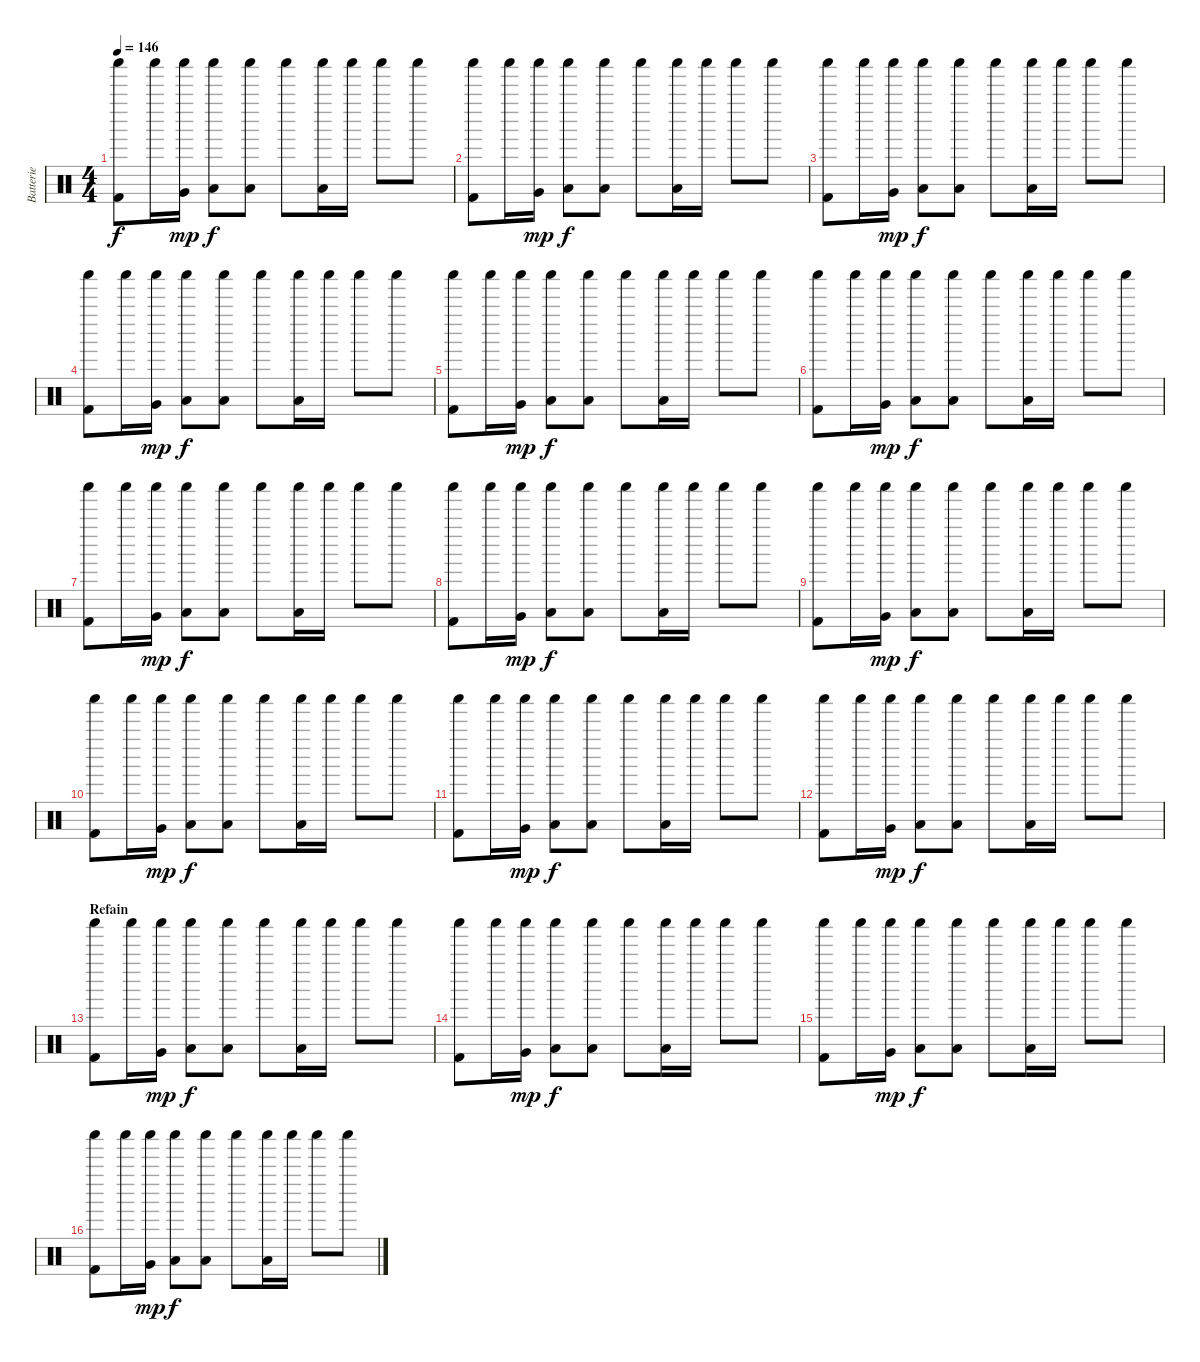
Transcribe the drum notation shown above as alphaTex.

\track ("Batterie" "Batterie") {instrument percussion}
\staff {score}
\articulation defaults
\ts (4 4)
\tempo 146
\clef neutral
\ks c
("Shaker (hit)" "Kick (hit) 2").8{dy f} "Shaker (hit)".16 ("Shaker (hit)" "Very Low Tom (hit)").16{dy mp} ("Shaker (hit)" "Low Tom (hit)").8{dy f} ("Shaker (hit)" "Low Tom (hit)").8 "Shaker (hit)".8 ("Shaker (hit)" "Low Tom (hit)").16 "Shaker (hit)".16 "Shaker (hit)".8 "Shaker (hit)".8 |
("Shaker (hit)" "Kick (hit) 2").8 "Shaker (hit)".16 ("Shaker (hit)" "Very Low Tom (hit)").16{dy mp} ("Shaker (hit)" "Low Tom (hit)").8{dy f} ("Shaker (hit)" "Low Tom (hit)").8 "Shaker (hit)".8 ("Shaker (hit)" "Low Tom (hit)").16 "Shaker (hit)".16 "Shaker (hit)".8 "Shaker (hit)".8 |
("Shaker (hit)" "Kick (hit) 2").8 "Shaker (hit)".16 ("Shaker (hit)" "Very Low Tom (hit)").16{dy mp} ("Shaker (hit)" "Low Tom (hit)").8{dy f} ("Shaker (hit)" "Low Tom (hit)").8 "Shaker (hit)".8 ("Shaker (hit)" "Low Tom (hit)").16 "Shaker (hit)".16 "Shaker (hit)".8 "Shaker (hit)".8 |
("Shaker (hit)" "Kick (hit) 2").8 "Shaker (hit)".16 ("Shaker (hit)" "Very Low Tom (hit)").16{dy mp} ("Shaker (hit)" "Low Tom (hit)").8{dy f} ("Shaker (hit)" "Low Tom (hit)").8 "Shaker (hit)".8 ("Shaker (hit)" "Low Tom (hit)").16 "Shaker (hit)".16 "Shaker (hit)".8 "Shaker (hit)".8 |
("Shaker (hit)" "Kick (hit) 2").8 "Shaker (hit)".16 ("Shaker (hit)" "Very Low Tom (hit)").16{dy mp} ("Shaker (hit)" "Low Tom (hit)").8{dy f} ("Shaker (hit)" "Low Tom (hit)").8 "Shaker (hit)".8 ("Shaker (hit)" "Low Tom (hit)").16 "Shaker (hit)".16 "Shaker (hit)".8 "Shaker (hit)".8 |
("Shaker (hit)" "Kick (hit) 2").8 "Shaker (hit)".16 ("Shaker (hit)" "Very Low Tom (hit)").16{dy mp} ("Shaker (hit)" "Low Tom (hit)").8{dy f} ("Shaker (hit)" "Low Tom (hit)").8 "Shaker (hit)".8 ("Shaker (hit)" "Low Tom (hit)").16 "Shaker (hit)".16 "Shaker (hit)".8 "Shaker (hit)".8 |
("Shaker (hit)" "Kick (hit) 2").8 "Shaker (hit)".16 ("Shaker (hit)" "Very Low Tom (hit)").16{dy mp} ("Shaker (hit)" "Low Tom (hit)").8{dy f} ("Shaker (hit)" "Low Tom (hit)").8 "Shaker (hit)".8 ("Shaker (hit)" "Low Tom (hit)").16 "Shaker (hit)".16 "Shaker (hit)".8 "Shaker (hit)".8 |
("Shaker (hit)" "Kick (hit) 2").8 "Shaker (hit)".16 ("Shaker (hit)" "Very Low Tom (hit)").16{dy mp} ("Shaker (hit)" "Low Tom (hit)").8{dy f} ("Shaker (hit)" "Low Tom (hit)").8 "Shaker (hit)".8 ("Shaker (hit)" "Low Tom (hit)").16 "Shaker (hit)".16 "Shaker (hit)".8 "Shaker (hit)".8 |
("Shaker (hit)" "Kick (hit) 2").8 "Shaker (hit)".16 ("Shaker (hit)" "Very Low Tom (hit)").16{dy mp} ("Shaker (hit)" "Low Tom (hit)").8{dy f} ("Shaker (hit)" "Low Tom (hit)").8 "Shaker (hit)".8 ("Shaker (hit)" "Low Tom (hit)").16 "Shaker (hit)".16 "Shaker (hit)".8 "Shaker (hit)".8 |
("Shaker (hit)" "Kick (hit) 2").8 "Shaker (hit)".16 ("Shaker (hit)" "Very Low Tom (hit)").16{dy mp} ("Shaker (hit)" "Low Tom (hit)").8{dy f} ("Shaker (hit)" "Low Tom (hit)").8 "Shaker (hit)".8 ("Shaker (hit)" "Low Tom (hit)").16 "Shaker (hit)".16 "Shaker (hit)".8 "Shaker (hit)".8 |
("Shaker (hit)" "Kick (hit) 2").8 "Shaker (hit)".16 ("Shaker (hit)" "Very Low Tom (hit)").16{dy mp} ("Shaker (hit)" "Low Tom (hit)").8{dy f} ("Shaker (hit)" "Low Tom (hit)").8 "Shaker (hit)".8 ("Shaker (hit)" "Low Tom (hit)").16 "Shaker (hit)".16 "Shaker (hit)".8 "Shaker (hit)".8 |
("Shaker (hit)" "Kick (hit) 2").8 "Shaker (hit)".16 ("Shaker (hit)" "Very Low Tom (hit)").16{dy mp} ("Shaker (hit)" "Low Tom (hit)").8{dy f} ("Shaker (hit)" "Low Tom (hit)").8 "Shaker (hit)".8 ("Shaker (hit)" "Low Tom (hit)").16 "Shaker (hit)".16 "Shaker (hit)".8 "Shaker (hit)".8 |
\section ("" "Refain")
("Shaker (hit)" "Kick (hit) 2").8 "Shaker (hit)".16 ("Shaker (hit)" "Very Low Tom (hit)").16{dy mp} ("Shaker (hit)" "Low Tom (hit)").8{dy f} ("Shaker (hit)" "Low Tom (hit)").8 "Shaker (hit)".8 ("Shaker (hit)" "Low Tom (hit)").16 "Shaker (hit)".16 "Shaker (hit)".8 "Shaker (hit)".8 |
("Shaker (hit)" "Kick (hit) 2").8 "Shaker (hit)".16 ("Shaker (hit)" "Very Low Tom (hit)").16{dy mp} ("Shaker (hit)" "Low Tom (hit)").8{dy f} ("Shaker (hit)" "Low Tom (hit)").8 "Shaker (hit)".8 ("Shaker (hit)" "Low Tom (hit)").16 "Shaker (hit)".16 "Shaker (hit)".8 "Shaker (hit)".8 |
("Shaker (hit)" "Kick (hit) 2").8 "Shaker (hit)".16 ("Shaker (hit)" "Very Low Tom (hit)").16{dy mp} ("Shaker (hit)" "Low Tom (hit)").8{dy f} ("Shaker (hit)" "Low Tom (hit)").8 "Shaker (hit)".8 ("Shaker (hit)" "Low Tom (hit)").16 "Shaker (hit)".16 "Shaker (hit)".8 "Shaker (hit)".8 |
("Shaker (hit)" "Kick (hit) 2").8 "Shaker (hit)".16 ("Shaker (hit)" "Very Low Tom (hit)").16{dy mp} ("Shaker (hit)" "Low Tom (hit)").8{dy f} ("Shaker (hit)" "Low Tom (hit)").8 "Shaker (hit)".8 ("Shaker (hit)" "Low Tom (hit)").16 "Shaker (hit)".16 "Shaker (hit)".8 "Shaker (hit)".8
